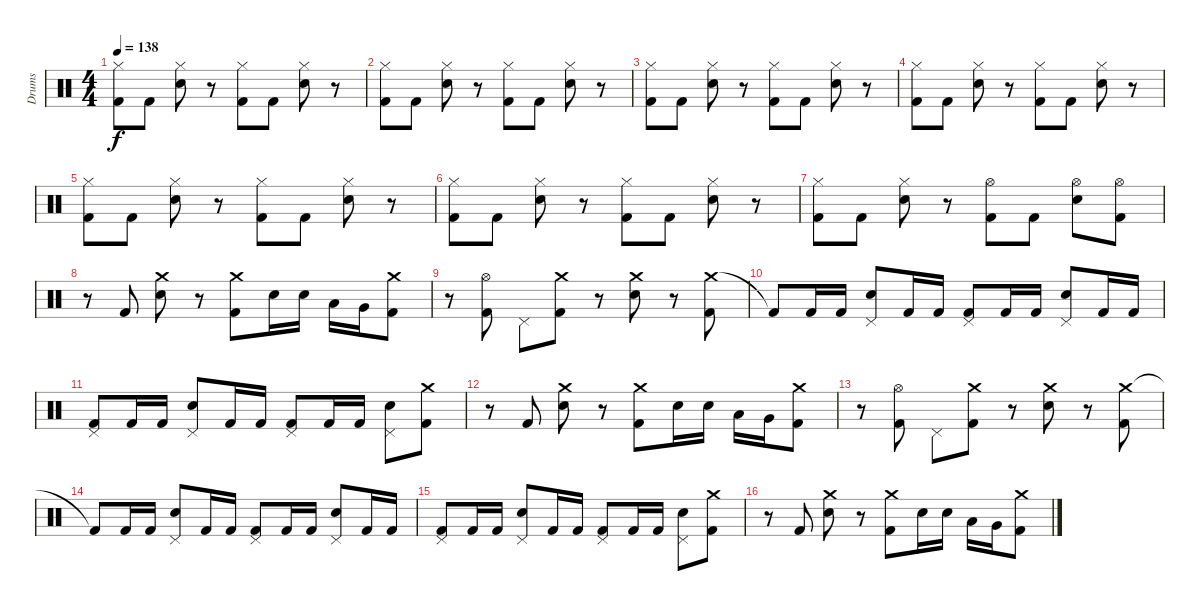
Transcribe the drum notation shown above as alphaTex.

\track ("Drums" "Drums") {instrument percussion}
\staff {score}
\articulation defaults
\ts (4 4)
\tempo 138
\clef neutral
\ks c
("Hi-Hat (closed)" "Kick (hit) 2").8{dy f} "Kick (hit) 2".8 ("Hi-Hat (closed)" "Electric Snare (hit)").8 r.8 ("Hi-Hat (closed)" "Kick (hit) 2").8 "Kick (hit) 2".8 ("Hi-Hat (closed)" "Electric Snare (hit)").8 r.8 |
("Hi-Hat (closed)" "Kick (hit) 2").8 "Kick (hit) 2".8 ("Hi-Hat (closed)" "Electric Snare (hit)").8 r.8 ("Hi-Hat (closed)" "Kick (hit) 2").8 "Kick (hit) 2".8 ("Hi-Hat (closed)" "Electric Snare (hit)").8 r.8 |
("Hi-Hat (closed)" "Kick (hit) 2").8 "Kick (hit) 2".8 ("Hi-Hat (closed)" "Electric Snare (hit)").8 r.8 ("Hi-Hat (closed)" "Kick (hit) 2").8 "Kick (hit) 2".8 ("Hi-Hat (closed)" "Electric Snare (hit)").8 r.8 |
("Hi-Hat (closed)" "Kick (hit) 2").8 "Kick (hit) 2".8 ("Hi-Hat (closed)" "Electric Snare (hit)").8 r.8 ("Hi-Hat (closed)" "Kick (hit) 2").8 "Kick (hit) 2".8 ("Hi-Hat (closed)" "Electric Snare (hit)").8 r.8 |
("Hi-Hat (closed)" "Kick (hit) 2").8 "Kick (hit) 2".8 ("Hi-Hat (closed)" "Electric Snare (hit)").8 r.8 ("Hi-Hat (closed)" "Kick (hit) 2").8 "Kick (hit) 2".8 ("Hi-Hat (closed)" "Electric Snare (hit)").8 r.8 |
("Hi-Hat (closed)" "Kick (hit) 2").8 "Kick (hit) 2".8 ("Hi-Hat (closed)" "Electric Snare (hit)").8 r.8 ("Hi-Hat (closed)" "Kick (hit) 2").8 "Kick (hit) 2".8 ("Hi-Hat (closed)" "Electric Snare (hit)").8 r.8 |
("Hi-Hat (closed)" "Kick (hit) 2").8 "Kick (hit) 2".8 ("Hi-Hat (closed)" "Electric Snare (hit)").8 r.8 ("Hi-Hat (open)" "Kick (hit) 2").8 "Kick (hit) 2".8 ("Hi-Hat (open)" "Electric Snare (hit)").8 ("Hi-Hat (open)" "Kick (hit) 2").8 |
r.8 "Kick (hit) 2".8 ("Crash medium (hit)" "Electric Snare (hit)").8 r.8 ("Crash medium (hit)" "Kick (hit) 2").8 "Electric Snare (hit)".16 "Electric Snare (hit)".16 "Low Tom (hit)".16 "Very Low Tom (hit)".16 ("Crash medium (hit)" "Kick (hit) 2").8 |
r.8 ("Hi-Hat (open)" "Kick (hit) 2").8 "Pedal Hi-Hat (hit)".8 ("Crash medium (hit)" "Kick (hit) 2").8 r.8 ("Crash medium (hit)" "Electric Snare (hit)").8 r.8 ("Crash medium (hit)" "Kick (hit) 2").8 |
"Kick (hit) 2"{t}.8 "Kick (hit) 2".16 "Kick (hit) 2".16 ("Pedal Hi-Hat (hit)" "Electric Snare (hit)").8 "Kick (hit) 2".16 "Kick (hit) 2".16 ("Pedal Hi-Hat (hit)" "Kick (hit) 2").8 "Kick (hit) 2".16 "Kick (hit) 2".16 ("Pedal Hi-Hat (hit)" "Electric Snare (hit)").8 "Kick (hit) 2".16 "Kick (hit) 2".16 |
("Pedal Hi-Hat (hit)" "Kick (hit) 2").8 "Kick (hit) 2".16 "Kick (hit) 2".16 ("Pedal Hi-Hat (hit)" "Electric Snare (hit)").8 "Kick (hit) 2".16 "Kick (hit) 2".16 ("Pedal Hi-Hat (hit)" "Kick (hit) 2").8 "Kick (hit) 2".16 "Kick (hit) 2".16 ("Pedal Hi-Hat (hit)" "Electric Snare (hit)").8 ("Crash medium (hit)" "Kick (hit) 2").8 |
r.8 "Kick (hit) 2".8 ("Crash medium (hit)" "Electric Snare (hit)").8 r.8 ("Crash medium (hit)" "Kick (hit) 2").8 "Electric Snare (hit)".16 "Electric Snare (hit)".16 "Low Tom (hit)".16 "Very Low Tom (hit)".16 ("Crash medium (hit)" "Kick (hit) 2").8 |
r.8 ("Hi-Hat (open)" "Kick (hit) 2").8 "Pedal Hi-Hat (hit)".8 ("Crash medium (hit)" "Kick (hit) 2").8 r.8 ("Crash medium (hit)" "Electric Snare (hit)").8 r.8 ("Crash medium (hit)" "Kick (hit) 2").8 |
"Kick (hit) 2"{t}.8 "Kick (hit) 2".16 "Kick (hit) 2".16 ("Pedal Hi-Hat (hit)" "Electric Snare (hit)").8 "Kick (hit) 2".16 "Kick (hit) 2".16 ("Pedal Hi-Hat (hit)" "Kick (hit) 2").8 "Kick (hit) 2".16 "Kick (hit) 2".16 ("Pedal Hi-Hat (hit)" "Electric Snare (hit)").8 "Kick (hit) 2".16 "Kick (hit) 2".16 |
("Pedal Hi-Hat (hit)" "Kick (hit) 2").8 "Kick (hit) 2".16 "Kick (hit) 2".16 ("Pedal Hi-Hat (hit)" "Electric Snare (hit)").8 "Kick (hit) 2".16 "Kick (hit) 2".16 ("Pedal Hi-Hat (hit)" "Kick (hit) 2").8 "Kick (hit) 2".16 "Kick (hit) 2".16 ("Pedal Hi-Hat (hit)" "Electric Snare (hit)").8 ("Crash medium (hit)" "Kick (hit) 2").8 |
r.8 "Kick (hit) 2".8 ("Crash medium (hit)" "Electric Snare (hit)").8 r.8 ("Crash medium (hit)" "Kick (hit) 2").8 "Electric Snare (hit)".16 "Electric Snare (hit)".16 "Low Tom (hit)".16 "Very Low Tom (hit)".16 ("Crash medium (hit)" "Kick (hit) 2").8
